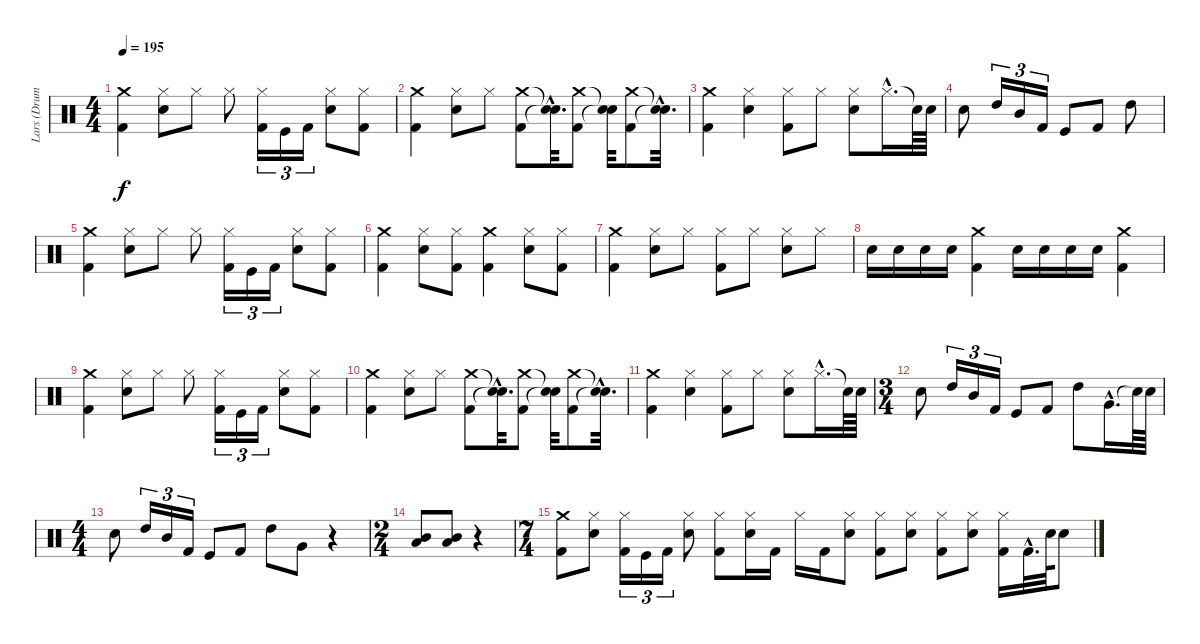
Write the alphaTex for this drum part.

\track ("Lars (Drums)" "Lars (Drum") {instrument percussion}
\staff {score}
\articulation defaults
\ts (4 4)
\tempo 195
\clef neutral
\ks c
("Kick (hit) 2" "Crash medium (hit)").4{dy f} ("Snare (hit) 2" "Hi-Hat (closed)").8 "Hi-Hat (closed)".8 "Hi-Hat (closed)".8 ("Kick (hit) 2" "Hi-Hat (closed)").16{tu (3 2)} "Kick (hit)".16{tu (3 2)} "Kick (hit) 2".16{tu (3 2)} ("Snare (hit) 2" "Hi-Hat (closed)").8 ("Kick (hit) 2" "Hi-Hat (closed)").8 |
("Kick (hit) 2" "Crash medium (hit)").4 ("Hi-Hat (closed)" "Snare (hit) 2").8 "Hi-Hat (closed)".8 ("Kick (hit) 2" "Crash medium (hit)").8 ("Snare (hit)"{hac t} "Snare (hit)"{hac t}).32{d} ("Kick (hit) 2" "Crash medium (hit)").8 ("Snare (hit)"{t} "Snare (hit)"{t}).32 ("Kick (hit) 2" "Crash medium (hit)").8 ("Snare (hit)"{hac t} "Snare (hit)"{hac t}).32{d} |
("Kick (hit) 2" "Crash medium (hit)").4 ("Hi-Hat (closed)" "Snare (hit) 2").4 ("Hi-Hat (closed)" "Kick (hit) 2").8 "Hi-Hat (closed)".8 ("Snare (hit) 2" "Hi-Hat (closed)").8 "Hi-Hat (closed)"{hac}.16{d} "Snare (hit)"{t}.64 "Snare (hit) 2".64 |
"Snare (hit) 2".8 "High Tom (hit)".16{tu (3 2)} "Mid Tom (hit)".16{tu (3 2)} "Kick (hit) 2".16{tu (3 2)} "Kick (hit)".8 "Kick (hit) 2".8 "High Tom (hit)".8 |
("Kick (hit) 2" "Crash medium (hit)").4 ("Snare (hit) 2" "Hi-Hat (closed)").8 "Hi-Hat (closed)".8 "Hi-Hat (closed)".8 ("Kick (hit) 2" "Hi-Hat (closed)").16{tu (3 2)} "Kick (hit)".16{tu (3 2)} "Kick (hit) 2".16{tu (3 2)} ("Snare (hit) 2" "Hi-Hat (closed)").8 ("Kick (hit) 2" "Hi-Hat (closed)").8 |
("Kick (hit) 2" "Crash medium (hit)").4 ("Hi-Hat (closed)" "Snare (hit) 2").8 ("Kick (hit) 2" "Hi-Hat (closed)").8 ("Crash medium (hit)" "Kick (hit) 2").4 ("Hi-Hat (closed)" "Snare (hit) 2").8 ("Kick (hit) 2" "Hi-Hat (closed)").8 |
("Kick (hit) 2" "Crash medium (hit)").4 ("Hi-Hat (closed)" "Snare (hit) 2").8 "Hi-Hat (closed)".8 ("Hi-Hat (closed)" "Kick (hit) 2").8 "Hi-Hat (closed)".8 ("Snare (hit) 2" "Hi-Hat (closed)").8 "Hi-Hat (closed)".8 |
"Snare (hit) 2".16 "Snare (hit) 2".16 "Snare (hit) 2".16 "Snare (hit) 2".16 ("Kick (hit) 2" "Crash medium (hit)").4 "Snare (hit) 2".16 "Snare (hit) 2".16 "Snare (hit) 2".16 "Snare (hit) 2".16 ("Kick (hit) 2" "Crash medium (hit)").4 |
("Kick (hit) 2" "Crash medium (hit)").4 ("Snare (hit) 2" "Hi-Hat (closed)").8 "Hi-Hat (closed)".8 "Hi-Hat (closed)".8 ("Kick (hit) 2" "Hi-Hat (closed)").16{tu (3 2)} "Kick (hit)".16{tu (3 2)} "Kick (hit) 2".16{tu (3 2)} ("Snare (hit) 2" "Hi-Hat (closed)").8 ("Kick (hit) 2" "Hi-Hat (closed)").8 |
("Kick (hit) 2" "Crash medium (hit)").4 ("Hi-Hat (closed)" "Snare (hit) 2").8 "Hi-Hat (closed)".8 ("Kick (hit) 2" "Crash medium (hit)").8 ("Snare (hit)"{hac t} "Snare (hit)"{hac t}).32{d} ("Kick (hit) 2" "Crash medium (hit)").8 ("Snare (hit)"{t} "Snare (hit)"{t}).32 ("Kick (hit) 2" "Crash medium (hit)").8 ("Snare (hit)"{hac t} "Snare (hit)"{hac t}).32{d} |
("Kick (hit) 2" "Crash medium (hit)").4 ("Hi-Hat (closed)" "Snare (hit) 2").4 ("Hi-Hat (closed)" "Kick (hit) 2").8 "Hi-Hat (closed)".8 ("Snare (hit) 2" "Hi-Hat (closed)").8 "Hi-Hat (closed)"{hac}.16{d} "Snare (hit)"{t}.64 "Snare (hit) 2".64 |
\ts (3 4)
"Snare (hit) 2".8 "High Tom (hit)".16{tu (3 2)} "Mid Tom (hit)".16{tu (3 2)} "Kick (hit) 2".16{tu (3 2)} "Kick (hit)".8 "Kick (hit) 2".8 "High Tom (hit)".8 "Very Low Tom (hit)"{hac}.16{d} "Snare (hit)"{t}.64 "Snare (hit) 2".64 |
\ts (4 4)
"Snare (hit) 2".8 "High Tom (hit)".16{tu (3 2)} "Mid Tom (hit)".16{tu (3 2)} "Kick (hit) 2".16{tu (3 2)} "Kick (hit)".8 "Kick (hit) 2".8 "High Tom (hit)".8 "Very Low Tom (hit)".8 r.4 |
\ts (2 4)
("Mid Tom (hit)" "Low Tom (hit)").8 ("Mid Tom (hit)" "Low Tom (hit)").8 r.4 |
\ts (7 4)
("Crash medium (hit)" "Kick (hit) 2").8 ("Snare (hit) 2" "Hi-Hat (closed)").8 ("Hi-Hat (closed)" "Kick (hit) 2").16{tu (3 2)} "Kick (hit)".16{tu (3 2)} "Kick (hit) 2".16{tu (3 2)} ("Snare (hit) 2" "Hi-Hat (closed)").8 ("Hi-Hat (closed)" "Kick (hit) 2").8 ("Snare (hit) 2" "Hi-Hat (closed)").16 "Kick (hit) 2".16 "Hi-Hat (closed)".16 "Kick (hit) 2".16 ("Snare (hit) 2" "Hi-Hat (closed)").8 ("Hi-Hat (closed)" "Kick (hit) 2").8 ("Snare (hit) 2" "Hi-Hat (closed)").8 ("Hi-Hat (closed)" "Kick (hit) 2").8 ("Snare (hit) 2" "Hi-Hat (closed)").8 ("Hi-Hat (closed)" "Kick (hit) 2").16 "Kick (hit) 2"{hac}.32{d} "Snare (hit) 2".64 "Snare (hit) 2".8
